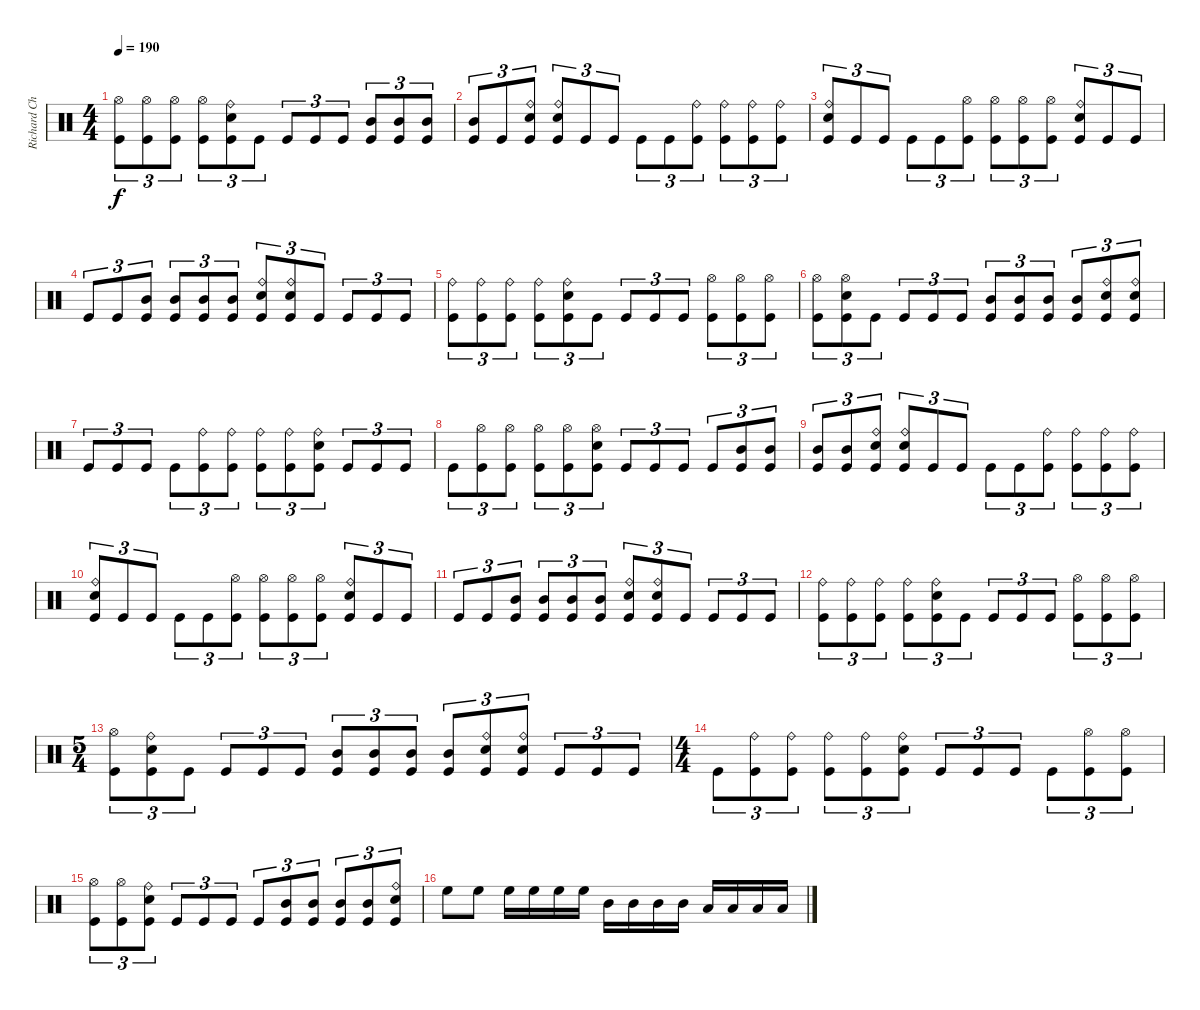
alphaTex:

\track ("Richard Christy" "Richard Ch") {instrument percussion}
\staff {score}
\articulation defaults
\ts (4 4)
\tempo 190
\clef neutral
\ks c
("Hi-Hat (open)" "Kick (hit)").8{tu (3 2) dy f} ("Hi-Hat (open)" "Kick (hit)").8{tu (3 2)} ("Hi-Hat (open)" "Kick (hit)").8{tu (3 2)} ("Hi-Hat (open)" "Kick (hit)").8{tu (3 2)} ("Ride (bell)" "Snare (hit) 2" "Kick (hit)").8{tu (3 2)} "Kick (hit)".8{tu (3 2)} "Kick (hit)".8{tu (3 2)} "Kick (hit)".8{tu (3 2)} "Kick (hit)".8{tu (3 2)} ("Mid Tom (hit)" "Kick (hit)").8{tu (3 2)} ("Mid Tom (hit)" "Kick (hit)").8{tu (3 2)} ("Mid Tom (hit)" "Kick (hit)").8{tu (3 2)} |
("Mid Tom (hit)" "Kick (hit)").8{tu (3 2)} "Kick (hit)".8{tu (3 2)} ("Ride (bell)" "Snare (hit) 2" "Kick (hit)").8{tu (3 2)} ("Ride (bell)" "Snare (hit) 2" "Kick (hit)").8{tu (3 2)} "Kick (hit)".8{tu (3 2)} "Kick (hit)".8{tu (3 2)} "Kick (hit)".8{tu (3 2)} "Kick (hit)".8{tu (3 2)} ("Ride (bell)" "Kick (hit)").8{tu (3 2)} ("Ride (bell)" "Kick (hit)").8{tu (3 2)} ("Ride (bell)" "Kick (hit)").8{tu (3 2)} ("Ride (bell)" "Kick (hit)").8{tu (3 2)} |
("Ride (bell)" "Snare (hit) 2" "Kick (hit)").8{tu (3 2)} "Kick (hit)".8{tu (3 2)} "Kick (hit)".8{tu (3 2)} "Kick (hit)".8{tu (3 2)} "Kick (hit)".8{tu (3 2)} ("Hi-Hat (open)" "Kick (hit)").8{tu (3 2)} ("Hi-Hat (open)" "Kick (hit)").8{tu (3 2)} ("Hi-Hat (open)" "Kick (hit)").8{tu (3 2)} ("Hi-Hat (open)" "Kick (hit)").8{tu (3 2)} ("Ride (bell)" "Snare (hit) 2" "Kick (hit)").8{tu (3 2)} "Kick (hit)".8{tu (3 2)} "Kick (hit)".8{tu (3 2)} |
"Kick (hit)".8{tu (3 2)} "Kick (hit)".8{tu (3 2)} ("Mid Tom (hit)" "Kick (hit)").8{tu (3 2)} ("Mid Tom (hit)" "Kick (hit)").8{tu (3 2)} ("Mid Tom (hit)" "Kick (hit)").8{tu (3 2)} ("Mid Tom (hit)" "Kick (hit)").8{tu (3 2)} ("Ride (bell)" "Snare (hit) 2" "Kick (hit)").8{tu (3 2)} ("Ride (bell)" "Snare (hit) 2" "Kick (hit)").8{tu (3 2)} "Kick (hit)".8{tu (3 2)} "Kick (hit)".8{tu (3 2)} "Kick (hit)".8{tu (3 2)} "Kick (hit)".8{tu (3 2)} |
("Ride (bell)" "Kick (hit)").8{tu (3 2)} ("Ride (bell)" "Kick (hit)").8{tu (3 2)} ("Ride (bell)" "Kick (hit)").8{tu (3 2)} ("Ride (bell)" "Kick (hit)").8{tu (3 2)} ("Ride (bell)" "Snare (hit) 2" "Kick (hit)").8{tu (3 2)} "Kick (hit)".8{tu (3 2)} "Kick (hit)".8{tu (3 2)} "Kick (hit)".8{tu (3 2)} "Kick (hit)".8{tu (3 2)} ("Hi-Hat (open)" "Kick (hit)").8{tu (3 2)} ("Hi-Hat (open)" "Kick (hit)").8{tu (3 2)} ("Hi-Hat (open)" "Kick (hit)").8{tu (3 2)} |
("Hi-Hat (open)" "Kick (hit)").8{tu (3 2)} ("Hi-Hat (open)" "Snare (hit) 2" "Kick (hit)").8{tu (3 2)} "Kick (hit)".8{tu (3 2)} "Kick (hit)".8{tu (3 2)} "Kick (hit)".8{tu (3 2)} "Kick (hit)".8{tu (3 2)} ("Mid Tom (hit)" "Kick (hit)").8{tu (3 2)} ("Mid Tom (hit)" "Kick (hit)").8{tu (3 2)} ("Mid Tom (hit)" "Kick (hit)").8{tu (3 2)} ("Mid Tom (hit)" "Kick (hit)").8{tu (3 2)} ("Ride (bell)" "Snare (hit) 2" "Kick (hit)").8{tu (3 2)} ("Ride (bell)" "Snare (hit) 2" "Kick (hit)").8{tu (3 2)} |
"Kick (hit)".8{tu (3 2)} "Kick (hit)".8{tu (3 2)} "Kick (hit)".8{tu (3 2)} "Kick (hit)".8{tu (3 2)} ("Ride (bell)" "Kick (hit)").8{tu (3 2)} ("Ride (bell)" "Kick (hit)").8{tu (3 2)} ("Ride (bell)" "Kick (hit)").8{tu (3 2)} ("Ride (bell)" "Kick (hit)").8{tu (3 2)} ("Ride (bell)" "Snare (hit) 2" "Kick (hit)").8{tu (3 2)} "Kick (hit)".8{tu (3 2)} "Kick (hit)".8{tu (3 2)} "Kick (hit)".8{tu (3 2)} |
"Kick (hit)".8{tu (3 2)} ("Hi-Hat (open)" "Kick (hit)").8{tu (3 2)} ("Hi-Hat (open)" "Kick (hit)").8{tu (3 2)} ("Hi-Hat (open)" "Kick (hit)").8{tu (3 2)} ("Hi-Hat (open)" "Kick (hit)").8{tu (3 2)} ("Hi-Hat (open)" "Snare (hit) 2" "Kick (hit)").8{tu (3 2)} "Kick (hit)".8{tu (3 2)} "Kick (hit)".8{tu (3 2)} "Kick (hit)".8{tu (3 2)} "Kick (hit)".8{tu (3 2)} ("Mid Tom (hit)" "Kick (hit)").8{tu (3 2)} ("Mid Tom (hit)" "Kick (hit)").8{tu (3 2)} |
("Mid Tom (hit)" "Kick (hit)").8{tu (3 2)} ("Mid Tom (hit)" "Kick (hit)").8{tu (3 2)} ("Ride (bell)" "Snare (hit) 2" "Kick (hit)").8{tu (3 2)} ("Ride (bell)" "Snare (hit) 2" "Kick (hit)").8{tu (3 2)} "Kick (hit)".8{tu (3 2)} "Kick (hit)".8{tu (3 2)} "Kick (hit)".8{tu (3 2)} "Kick (hit)".8{tu (3 2)} ("Ride (bell)" "Kick (hit)").8{tu (3 2)} ("Ride (bell)" "Kick (hit)").8{tu (3 2)} ("Ride (bell)" "Kick (hit)").8{tu (3 2)} ("Ride (bell)" "Kick (hit)").8{tu (3 2)} |
("Ride (bell)" "Snare (hit) 2" "Kick (hit)").8{tu (3 2)} "Kick (hit)".8{tu (3 2)} "Kick (hit)".8{tu (3 2)} "Kick (hit)".8{tu (3 2)} "Kick (hit)".8{tu (3 2)} ("Hi-Hat (open)" "Kick (hit)").8{tu (3 2)} ("Hi-Hat (open)" "Kick (hit)").8{tu (3 2)} ("Hi-Hat (open)" "Kick (hit)").8{tu (3 2)} ("Hi-Hat (open)" "Kick (hit)").8{tu (3 2)} ("Ride (bell)" "Snare (hit) 2" "Kick (hit)").8{tu (3 2)} "Kick (hit)".8{tu (3 2)} "Kick (hit)".8{tu (3 2)} |
"Kick (hit)".8{tu (3 2)} "Kick (hit)".8{tu (3 2)} ("Mid Tom (hit)" "Kick (hit)").8{tu (3 2)} ("Mid Tom (hit)" "Kick (hit)").8{tu (3 2)} ("Mid Tom (hit)" "Kick (hit)").8{tu (3 2)} ("Mid Tom (hit)" "Kick (hit)").8{tu (3 2)} ("Ride (bell)" "Snare (hit) 2" "Kick (hit)").8{tu (3 2)} ("Ride (bell)" "Snare (hit) 2" "Kick (hit)").8{tu (3 2)} "Kick (hit)".8{tu (3 2)} "Kick (hit)".8{tu (3 2)} "Kick (hit)".8{tu (3 2)} "Kick (hit)".8{tu (3 2)} |
("Ride (bell)" "Kick (hit)").8{tu (3 2)} ("Ride (bell)" "Kick (hit)").8{tu (3 2)} ("Ride (bell)" "Kick (hit)").8{tu (3 2)} ("Ride (bell)" "Kick (hit)").8{tu (3 2)} ("Ride (bell)" "Snare (hit) 2" "Kick (hit)").8{tu (3 2)} "Kick (hit)".8{tu (3 2)} "Kick (hit)".8{tu (3 2)} "Kick (hit)".8{tu (3 2)} "Kick (hit)".8{tu (3 2)} ("Hi-Hat (open)" "Kick (hit)").8{tu (3 2)} ("Hi-Hat (open)" "Kick (hit)").8{tu (3 2)} ("Hi-Hat (open)" "Kick (hit)").8{tu (3 2)} |
\ts (5 4)
("Hi-Hat (open)" "Kick (hit)").8{tu (3 2)} ("Ride (bell)" "Snare (hit) 2" "Kick (hit)").8{tu (3 2)} "Kick (hit)".8{tu (3 2)} "Kick (hit)".8{tu (3 2)} "Kick (hit)".8{tu (3 2)} "Kick (hit)".8{tu (3 2)} ("Mid Tom (hit)" "Kick (hit)").8{tu (3 2)} ("Mid Tom (hit)" "Kick (hit)").8{tu (3 2)} ("Mid Tom (hit)" "Kick (hit)").8{tu (3 2)} ("Mid Tom (hit)" "Kick (hit)").8{tu (3 2)} ("Ride (bell)" "Snare (hit) 2" "Kick (hit)").8{tu (3 2)} ("Ride (bell)" "Snare (hit) 2" "Kick (hit)").8{tu (3 2)} "Kick (hit)".8{tu (3 2)} "Kick (hit)".8{tu (3 2)} "Kick (hit)".8{tu (3 2)} |
\ts (4 4)
"Kick (hit)".8{tu (3 2)} ("Ride (bell)" "Kick (hit)").8{tu (3 2)} ("Ride (bell)" "Kick (hit)").8{tu (3 2)} ("Ride (bell)" "Kick (hit)").8{tu (3 2)} ("Ride (bell)" "Kick (hit)").8{tu (3 2)} ("Ride (bell)" "Snare (hit) 2" "Kick (hit)").8{tu (3 2)} "Kick (hit)".8{tu (3 2)} "Kick (hit)".8{tu (3 2)} "Kick (hit)".8{tu (3 2)} "Kick (hit)".8{tu (3 2)} ("Hi-Hat (open)" "Kick (hit)").8{tu (3 2)} ("Hi-Hat (open)" "Kick (hit)").8{tu (3 2)} |
("Hi-Hat (open)" "Kick (hit)").8{tu (3 2)} ("Hi-Hat (open)" "Kick (hit)").8{tu (3 2)} ("Ride (bell)" "Snare (hit) 2" "Kick (hit)").8{tu (3 2)} "Kick (hit)".8{tu (3 2)} "Kick (hit)".8{tu (3 2)} "Kick (hit)".8{tu (3 2)} "Kick (hit)".8{tu (3 2)} ("Mid Tom (hit)" "Kick (hit)").8{tu (3 2)} ("Mid Tom (hit)" "Kick (hit)").8{tu (3 2)} ("Mid Tom (hit)" "Kick (hit)").8{tu (3 2)} ("Mid Tom (hit)" "Kick (hit)").8{tu (3 2)} ("Ride (bell)" "Snare (hit) 2" "Kick (hit)").8{tu (3 2)} |
"High Floor Tom (hit)".8 "High Floor Tom (hit)".8 "High Floor Tom (hit)".16 "High Floor Tom (hit)".16 "High Floor Tom (hit)".16 "High Floor Tom (hit)".16 "Mid Tom (hit)".16 "Mid Tom (hit)".16 "Mid Tom (hit)".16 "Mid Tom (hit)".16 "Low Tom (hit)".16 "Low Tom (hit)".16 "Low Tom (hit)".16 "Low Tom (hit)".16
